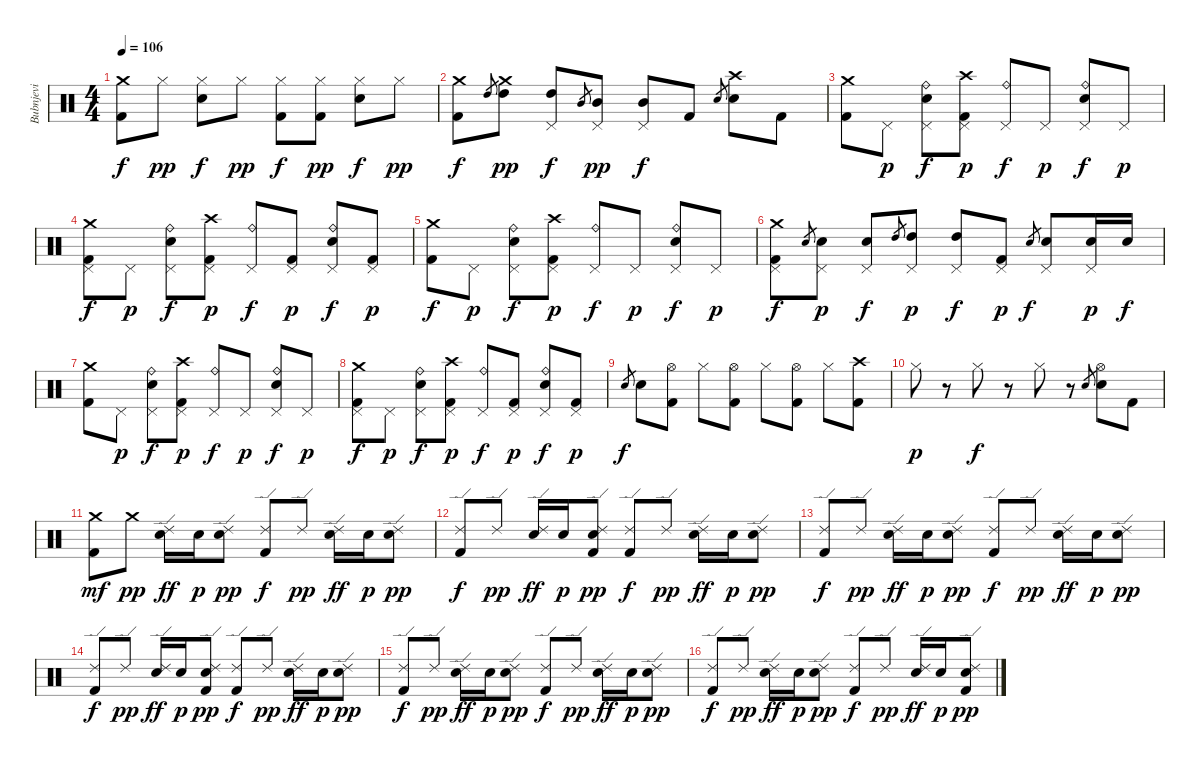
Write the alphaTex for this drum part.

\track ("Bubnjevi" "Bubnjevi") {instrument percussion}
\staff {score}
\articulation defaults
\ts (4 4)
\tempo 106
\clef neutral
\ks c
("Crash medium (hit)" "Kick (hit) 2").8{dy f} "Hi-Hat (closed)".8{dy pp} ("Hi-Hat (closed)" "Electric Snare (hit)").8{dy f} "Hi-Hat (closed)".8{dy pp} ("Hi-Hat (closed)" "Kick (hit) 2").8{dy f} ("Hi-Hat (closed)" "Kick (hit) 2").8{dy pp} ("Hi-Hat (closed)" "Electric Snare (hit)").8{dy f} "Hi-Hat (closed)".8{dy pp} |
("Crash medium (hit)" "Kick (hit) 2").8{dy f} "High Tom (hit)".8{gr} ("Crash medium (hit)" "High Tom (hit)").8{dy pp} ("Pedal Hi-Hat (hit)" "High Tom (hit)").8{dy f} "Mid Tom (hit)".8{gr} ("Pedal Hi-Hat (hit)" "Mid Tom (hit)").8{dy pp} ("Pedal Hi-Hat (hit)" "Mid Tom (hit)").8{dy f} "Kick (hit) 2".8 "Electric Snare (hit)".8{gr} ("Crash high (hit)" "Electric Snare (hit)").8 "Kick (hit) 2".8 |
("Crash medium (hit)" "Kick (hit) 2").8 "Pedal Hi-Hat (hit)".8{dy p} ("Ride (bell)" "Electric Snare (hit)" "Pedal Hi-Hat (hit)").8{dy f} ("Crash high (hit)" "Kick (hit) 2" "Pedal Hi-Hat (hit)").8{dy p} ("Ride (bell)" "Pedal Hi-Hat (hit)").8{dy f} "Pedal Hi-Hat (hit)".8{dy p} ("Ride (bell)" "Electric Snare (hit)" "Pedal Hi-Hat (hit)").8{dy f} "Pedal Hi-Hat (hit)".8{dy p} |
("Crash medium (hit)" "Kick (hit) 2" "Pedal Hi-Hat (hit)").8{dy f} "Pedal Hi-Hat (hit)".8{dy p} ("Ride (bell)" "Electric Snare (hit)" "Pedal Hi-Hat (hit)").8{dy f} ("Crash high (hit)" "Kick (hit) 2" "Pedal Hi-Hat (hit)").8{dy p} ("Ride (bell)" "Pedal Hi-Hat (hit)").8{dy f} ("Kick (hit) 2" "Pedal Hi-Hat (hit)").8{dy p} ("Ride (bell)" "Electric Snare (hit)" "Pedal Hi-Hat (hit)").8{dy f} ("Kick (hit) 2" "Pedal Hi-Hat (hit)").8{dy p} |
("Crash medium (hit)" "Kick (hit) 2").8{dy f} "Pedal Hi-Hat (hit)".8{dy p} ("Ride (bell)" "Electric Snare (hit)" "Pedal Hi-Hat (hit)").8{dy f} ("Crash high (hit)" "Kick (hit) 2" "Pedal Hi-Hat (hit)").8{dy p} ("Ride (bell)" "Pedal Hi-Hat (hit)").8{dy f} "Pedal Hi-Hat (hit)".8{dy p} ("Ride (bell)" "Electric Snare (hit)" "Pedal Hi-Hat (hit)").8{dy f} "Pedal Hi-Hat (hit)".8{dy p} |
("Crash medium (hit)" "Kick (hit) 2" "Pedal Hi-Hat (hit)").8{dy f} "Electric Snare (hit)".8{gr} ("Electric Snare (hit)" "Pedal Hi-Hat (hit)").8{dy p} ("Electric Snare (hit)" "Pedal Hi-Hat (hit)").8{dy f} "High Tom (hit)".8{gr} ("High Tom (hit)" "Pedal Hi-Hat (hit)").8{dy p} ("High Tom (hit)" "Pedal Hi-Hat (hit)").8{dy f} ("Kick (hit) 2" "Pedal Hi-Hat (hit)").8{dy p} "Electric Snare (hit)".8{gr dy f} ("Electric Snare (hit)" "Pedal Hi-Hat (hit)").8 ("Electric Snare (hit)" "Pedal Hi-Hat (hit)").16{dy p} "Electric Snare (hit)".16{dy f} |
("Crash medium (hit)" "Kick (hit) 2").8 "Pedal Hi-Hat (hit)".8{dy p} ("Ride (bell)" "Electric Snare (hit)" "Pedal Hi-Hat (hit)").8{dy f} ("Crash high (hit)" "Kick (hit) 2" "Pedal Hi-Hat (hit)").8{dy p} ("Ride (bell)" "Pedal Hi-Hat (hit)").8{dy f} "Pedal Hi-Hat (hit)".8{dy p} ("Ride (bell)" "Electric Snare (hit)" "Pedal Hi-Hat (hit)").8{dy f} "Pedal Hi-Hat (hit)".8{dy p} |
("Crash medium (hit)" "Kick (hit) 2" "Pedal Hi-Hat (hit)").8{dy f} "Pedal Hi-Hat (hit)".8{dy p} ("Ride (bell)" "Electric Snare (hit)" "Pedal Hi-Hat (hit)").8{dy f} ("Crash high (hit)" "Kick (hit) 2" "Pedal Hi-Hat (hit)").8{dy p} ("Ride (bell)" "Pedal Hi-Hat (hit)").8{dy f} ("Kick (hit) 2" "Pedal Hi-Hat (hit)").8{dy p} ("Ride (bell)" "Electric Snare (hit)" "Pedal Hi-Hat (hit)").8{dy f} ("Kick (hit) 2" "Pedal Hi-Hat (hit)").8{dy p} |
"Electric Snare (hit)".8{gr dy f} "Electric Snare (hit)".8 ("Hi-Hat (open)" "Kick (hit) 2").8 "Hi-Hat (closed)".8 ("Hi-Hat (open)" "Kick (hit) 2").8 "Hi-Hat (closed)".8 ("Hi-Hat (open)" "Kick (hit) 2").8 "Hi-Hat (closed)".8 ("Crash high (hit)" "Kick (hit) 2").8 |
"Hi-Hat (closed)".8{dy p} r.8 "Hi-Hat (closed)".8{dy f} r.8 "Hi-Hat (closed)".8 r.8 "Electric Snare (hit)".8{gr} ("Hi-Hat (open)" "Electric Snare (hit)").8 "Kick (hit) 2".8 |
("Crash medium (hit)" "Kick (hit) 2").8{dy mf} "Crash medium (hit)".8{dy pp} ("Ride (edge) 2" "Electric Snare (hit)").16{dy ff} "Electric Snare (hit)".16{dy p} ("Ride (edge) 2" "Electric Snare (hit)").8{dy pp} ("Ride (edge) 2" "Kick (hit) 2").8{dy f} "Ride (edge) 2".8{dy pp} ("Ride (edge) 2" "Electric Snare (hit)").16{dy ff} "Electric Snare (hit)".16{dy p} ("Ride (edge) 2" "Electric Snare (hit)").8{dy pp} |
("Ride (edge) 2" "Kick (hit) 2").8{dy f} "Ride (edge) 2".8{dy pp} ("Ride (edge) 2" "Electric Snare (hit)").16{dy ff} "Electric Snare (hit)".16{dy p} ("Ride (edge) 2" "Electric Snare (hit)" "Kick (hit) 2").8{dy pp} ("Ride (edge) 2" "Kick (hit) 2").8{dy f} "Ride (edge) 2".8{dy pp} ("Ride (edge) 2" "Electric Snare (hit)").16{dy ff} "Electric Snare (hit)".16{dy p} ("Ride (edge) 2" "Electric Snare (hit)").8{dy pp} |
("Ride (edge) 2" "Kick (hit) 2").8{dy f} "Ride (edge) 2".8{dy pp} ("Ride (edge) 2" "Electric Snare (hit)").16{dy ff} "Electric Snare (hit)".16{dy p} ("Ride (edge) 2" "Electric Snare (hit)").8{dy pp} ("Ride (edge) 2" "Kick (hit) 2").8{dy f} "Ride (edge) 2".8{dy pp} ("Ride (edge) 2" "Electric Snare (hit)").16{dy ff} "Electric Snare (hit)".16{dy p} ("Ride (edge) 2" "Electric Snare (hit)").8{dy pp} |
("Ride (edge) 2" "Kick (hit) 2").8{dy f} "Ride (edge) 2".8{dy pp} ("Ride (edge) 2" "Electric Snare (hit)").16{dy ff} "Electric Snare (hit)".16{dy p} ("Ride (edge) 2" "Electric Snare (hit)" "Kick (hit) 2").8{dy pp} ("Ride (edge) 2" "Kick (hit) 2").8{dy f} "Ride (edge) 2".8{dy pp} ("Ride (edge) 2" "Electric Snare (hit)").16{dy ff} "Electric Snare (hit)".16{dy p} ("Ride (edge) 2" "Electric Snare (hit)").8{dy pp} |
("Ride (edge) 2" "Kick (hit) 2").8{dy f} "Ride (edge) 2".8{dy pp} ("Ride (edge) 2" "Electric Snare (hit)").16{dy ff} "Electric Snare (hit)".16{dy p} ("Ride (edge) 2" "Electric Snare (hit)").8{dy pp} ("Ride (edge) 2" "Kick (hit) 2").8{dy f} "Ride (edge) 2".8{dy pp} ("Ride (edge) 2" "Electric Snare (hit)").16{dy ff} "Electric Snare (hit)".16{dy p} ("Ride (edge) 2" "Electric Snare (hit)").8{dy pp} |
("Ride (edge) 2" "Kick (hit) 2").8{dy f} "Ride (edge) 2".8{dy pp} ("Ride (edge) 2" "Electric Snare (hit)").16{dy ff} "Electric Snare (hit)".16{dy p} ("Ride (edge) 2" "Electric Snare (hit)").8{dy pp} ("Ride (edge) 2" "Kick (hit) 2").8{dy f} "Ride (edge) 2".8{dy pp} ("Ride (edge) 2" "Electric Snare (hit)").16{dy ff} "Electric Snare (hit)".16{dy p} ("Ride (edge) 2" "Electric Snare (hit)" "Kick (hit) 2").8{dy pp}
